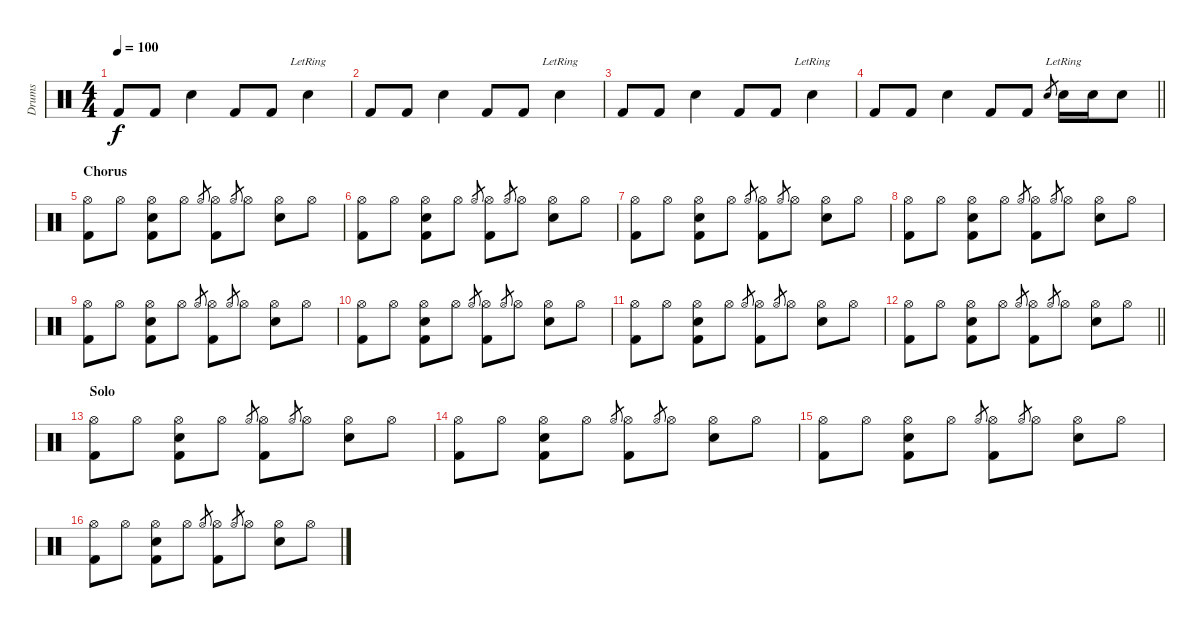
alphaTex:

\track ("Drums" "Drums") {instrument percussion}
\staff {score}
\articulation defaults
\ts (4 4)
\tempo 100
\clef neutral
\ks c "Kick (hit) 2".8{dy f} "Kick (hit) 2".8 "Electric Snare (hit)".4 "Kick (hit) 2".8 "Kick (hit) 2".8 "Electric Snare (hit)"{lr}.4
|
"Kick (hit) 2".8 "Kick (hit) 2".8 "Electric Snare (hit)".4 "Kick (hit) 2".8 "Kick (hit) 2".8 "Electric Snare (hit)"{lr}.4 |
"Kick (hit) 2".8 "Kick (hit) 2".8 "Electric Snare (hit)".4 "Kick (hit) 2".8 "Kick (hit) 2".8 "Electric Snare (hit)"{lr}.4 |
\barLineRight lightlight "Kick (hit) 2".8 "Kick (hit) 2".8 "Electric Snare (hit)".4 "Kick (hit) 2".8 "Kick (hit) 2".8 "Electric Snare (hit)".8{gr} "Electric Snare (hit)"{lr}.16 "Electric Snare (hit)".16 "Electric Snare (hit)".8
|
\section ("" "Chorus")
("Hi-Hat (open)" "Kick (hit) 2").8 "Hi-Hat (open)".8 ("Electric Snare (hit)" "Hi-Hat (open)" "Kick (hit) 2").8 "Hi-Hat (open)".8 "Hi-Hat (open)".8{gr} ("Hi-Hat (open)" "Kick (hit) 2").8 "Hi-Hat (open)".8{gr} "Hi-Hat (open)".8 ("Electric Snare (hit)" "Hi-Hat (open)").8 "Hi-Hat (open)".8 |
("Hi-Hat (open)" "Kick (hit) 2").8 "Hi-Hat (open)".8 ("Electric Snare (hit)" "Hi-Hat (open)" "Kick (hit) 2").8 "Hi-Hat (open)".8 "Hi-Hat (open)".8{gr} ("Hi-Hat (open)" "Kick (hit) 2").8 "Hi-Hat (open)".8{gr} "Hi-Hat (open)".8 ("Electric Snare (hit)" "Hi-Hat (open)").8 "Hi-Hat (open)".8 |
("Hi-Hat (open)" "Kick (hit) 2").8 "Hi-Hat (open)".8 ("Electric Snare (hit)" "Hi-Hat (open)" "Kick (hit) 2").8 "Hi-Hat (open)".8 "Hi-Hat (open)".8{gr} ("Hi-Hat (open)" "Kick (hit) 2").8 "Hi-Hat (open)".8{gr} "Hi-Hat (open)".8 ("Electric Snare (hit)" "Hi-Hat (open)").8 "Hi-Hat (open)".8 |
("Hi-Hat (open)" "Kick (hit) 2").8 "Hi-Hat (open)".8 ("Electric Snare (hit)" "Hi-Hat (open)" "Kick (hit) 2").8 "Hi-Hat (open)".8 "Hi-Hat (open)".8{gr} ("Hi-Hat (open)" "Kick (hit) 2").8 "Hi-Hat (open)".8{gr} "Hi-Hat (open)".8 ("Electric Snare (hit)" "Hi-Hat (open)").8 "Hi-Hat (open)".8 |
("Hi-Hat (open)" "Kick (hit) 2").8 "Hi-Hat (open)".8 ("Electric Snare (hit)" "Hi-Hat (open)" "Kick (hit) 2").8 "Hi-Hat (open)".8 "Hi-Hat (open)".8{gr} ("Hi-Hat (open)" "Kick (hit) 2").8 "Hi-Hat (open)".8{gr} "Hi-Hat (open)".8 ("Electric Snare (hit)" "Hi-Hat (open)").8 "Hi-Hat (open)".8 |
("Hi-Hat (open)" "Kick (hit) 2").8 "Hi-Hat (open)".8 ("Electric Snare (hit)" "Hi-Hat (open)" "Kick (hit) 2").8 "Hi-Hat (open)".8 "Hi-Hat (open)".8{gr} ("Hi-Hat (open)" "Kick (hit) 2").8 "Hi-Hat (open)".8{gr} "Hi-Hat (open)".8 ("Electric Snare (hit)" "Hi-Hat (open)").8 "Hi-Hat (open)".8 |
("Hi-Hat (open)" "Kick (hit) 2").8 "Hi-Hat (open)".8 ("Electric Snare (hit)" "Hi-Hat (open)" "Kick (hit) 2").8 "Hi-Hat (open)".8 "Hi-Hat (open)".8{gr} ("Hi-Hat (open)" "Kick (hit) 2").8 "Hi-Hat (open)".8{gr} "Hi-Hat (open)".8 ("Electric Snare (hit)" "Hi-Hat (open)").8 "Hi-Hat (open)".8 |
\barLineRight lightlight
("Hi-Hat (open)" "Kick (hit) 2").8 "Hi-Hat (open)".8 ("Electric Snare (hit)" "Hi-Hat (open)" "Kick (hit) 2").8 "Hi-Hat (open)".8 "Hi-Hat (open)".8{gr} ("Hi-Hat (open)" "Kick (hit) 2").8 "Hi-Hat (open)".8{gr} "Hi-Hat (open)".8 ("Electric Snare (hit)" "Hi-Hat (open)").8 "Hi-Hat (open)".8 |
\section ("" "Solo")
("Hi-Hat (open)" "Kick (hit) 2").8 "Hi-Hat (open)".8 ("Electric Snare (hit)" "Hi-Hat (open)" "Kick (hit) 2").8 "Hi-Hat (open)".8 "Hi-Hat (open)".8{gr} ("Hi-Hat (open)" "Kick (hit) 2").8 "Hi-Hat (open)".8{gr} "Hi-Hat (open)".8 ("Electric Snare (hit)" "Hi-Hat (open)").8 "Hi-Hat (open)".8 |
("Hi-Hat (open)" "Kick (hit) 2").8 "Hi-Hat (open)".8 ("Electric Snare (hit)" "Hi-Hat (open)" "Kick (hit) 2").8 "Hi-Hat (open)".8 "Hi-Hat (open)".8{gr} ("Hi-Hat (open)" "Kick (hit) 2").8 "Hi-Hat (open)".8{gr} "Hi-Hat (open)".8 ("Electric Snare (hit)" "Hi-Hat (open)").8 "Hi-Hat (open)".8 |
("Hi-Hat (open)" "Kick (hit) 2").8 "Hi-Hat (open)".8 ("Electric Snare (hit)" "Hi-Hat (open)" "Kick (hit) 2").8 "Hi-Hat (open)".8 "Hi-Hat (open)".8{gr} ("Hi-Hat (open)" "Kick (hit) 2").8 "Hi-Hat (open)".8{gr} "Hi-Hat (open)".8 ("Electric Snare (hit)" "Hi-Hat (open)").8 "Hi-Hat (open)".8 |
("Hi-Hat (open)" "Kick (hit) 2").8 "Hi-Hat (open)".8 ("Electric Snare (hit)" "Hi-Hat (open)" "Kick (hit) 2").8 "Hi-Hat (open)".8 "Hi-Hat (open)".8{gr} ("Hi-Hat (open)" "Kick (hit) 2").8 "Hi-Hat (open)".8{gr} "Hi-Hat (open)".8 ("Electric Snare (hit)" "Hi-Hat (open)").8 "Hi-Hat (open)".8
